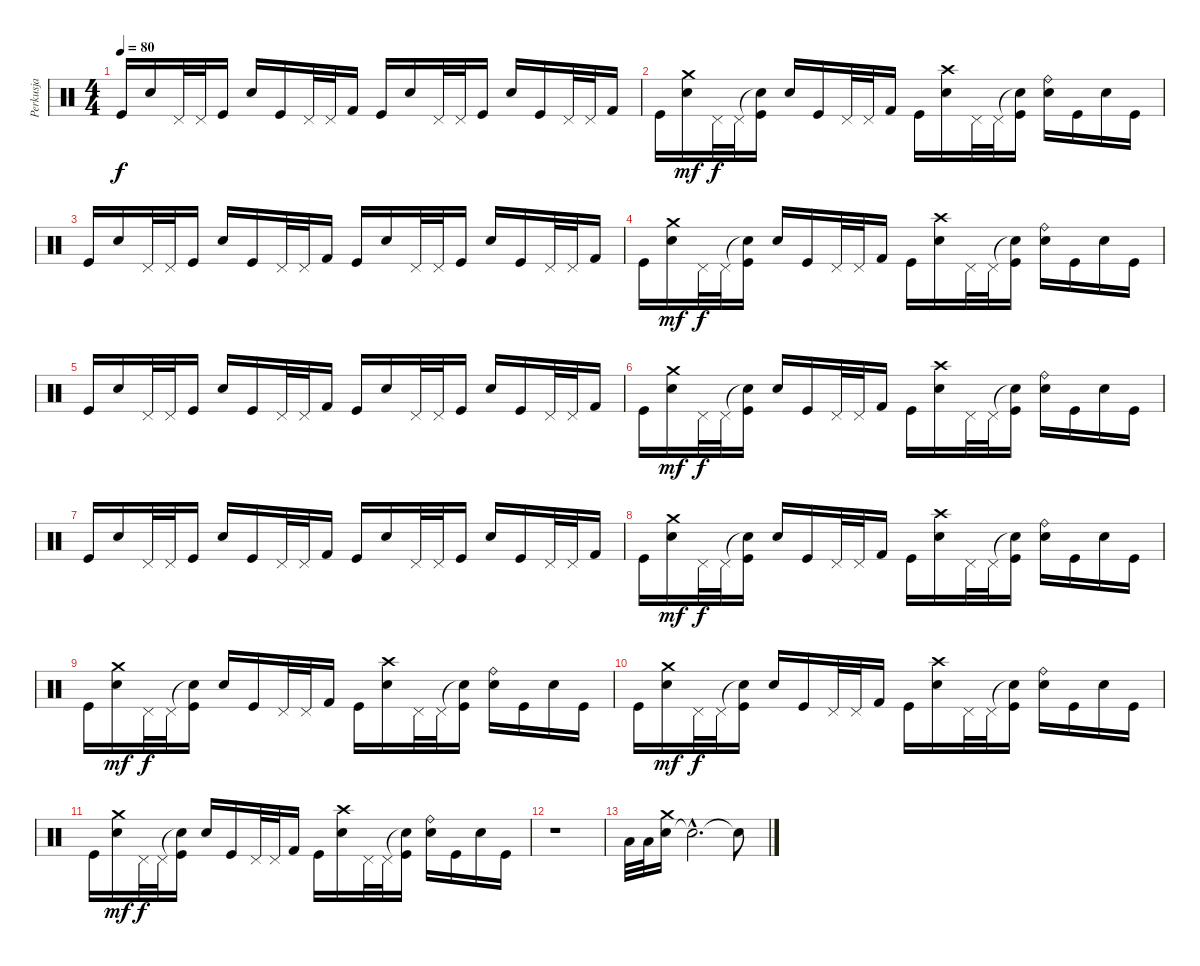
\track ("Perkusja" "Perkusja") {instrument percussion}
\staff {score}
\articulation defaults
\ts (4 4)
\tempo 80
\clef neutral
\ks c "Kick (hit)".16{dy f} "Electric Snare (hit)".16 "Pedal Hi-Hat (hit)".32 "Pedal Hi-Hat (hit)".32 "Kick (hit)".16 "Electric Snare (hit)".16 "Kick (hit)".16 "Pedal Hi-Hat (hit)".32 "Pedal Hi-Hat (hit)".32 "Kick (hit) 2".16 "Kick (hit)".16 "Electric Snare (hit)".16 "Pedal Hi-Hat (hit)".32 "Pedal Hi-Hat (hit)".32 "Kick (hit)".16 "Electric Snare (hit)".16 "Kick (hit)".16 "Pedal Hi-Hat (hit)".32 "Pedal Hi-Hat (hit)".32 "Kick (hit) 2".16
|
"Kick (hit)".16 ("Electric Snare (hit)" "Crash medium (hit)").16{dy mf} "Pedal Hi-Hat (hit)".32{dy f} "Pedal Hi-Hat (hit)".32 ("Snare (hit)"{t} "Kick (hit)").16 "Electric Snare (hit)".16 "Kick (hit)".16 "Pedal Hi-Hat (hit)".32 "Pedal Hi-Hat (hit)".32 "Kick (hit) 2".16 "Kick (hit)".16 ("Electric Snare (hit)" "Crash high (hit)").16 "Pedal Hi-Hat (hit)".32 "Pedal Hi-Hat (hit)".32 ("Snare (hit)"{t} "Kick (hit)").16 ("Electric Snare (hit)" "Ride (bell)").16 "Kick (hit)".16 "Electric Snare (hit)".16 "Kick (hit)".16 |
"Kick (hit)".16 "Electric Snare (hit)".16 "Pedal Hi-Hat (hit)".32 "Pedal Hi-Hat (hit)".32 "Kick (hit)".16 "Electric Snare (hit)".16 "Kick (hit)".16 "Pedal Hi-Hat (hit)".32 "Pedal Hi-Hat (hit)".32 "Kick (hit) 2".16 "Kick (hit)".16 "Electric Snare (hit)".16 "Pedal Hi-Hat (hit)".32 "Pedal Hi-Hat (hit)".32 "Kick (hit)".16 "Electric Snare (hit)".16 "Kick (hit)".16 "Pedal Hi-Hat (hit)".32 "Pedal Hi-Hat (hit)".32 "Kick (hit) 2".16 |
"Kick (hit)".16 ("Electric Snare (hit)" "Crash medium (hit)").16{dy mf} "Pedal Hi-Hat (hit)".32{dy f} "Pedal Hi-Hat (hit)".32 ("Snare (hit)"{t} "Kick (hit)").16 "Electric Snare (hit)".16 "Kick (hit)".16 "Pedal Hi-Hat (hit)".32 "Pedal Hi-Hat (hit)".32 "Kick (hit) 2".16 "Kick (hit)".16 ("Electric Snare (hit)" "Crash high (hit)").16 "Pedal Hi-Hat (hit)".32 "Pedal Hi-Hat (hit)".32 ("Snare (hit)"{t} "Kick (hit)").16 ("Electric Snare (hit)" "Ride (bell)").16 "Kick (hit)".16 "Electric Snare (hit)".16 "Kick (hit)".16 |
"Kick (hit)".16 "Electric Snare (hit)".16 "Pedal Hi-Hat (hit)".32 "Pedal Hi-Hat (hit)".32 "Kick (hit)".16 "Electric Snare (hit)".16 "Kick (hit)".16 "Pedal Hi-Hat (hit)".32 "Pedal Hi-Hat (hit)".32 "Kick (hit) 2".16 "Kick (hit)".16 "Electric Snare (hit)".16 "Pedal Hi-Hat (hit)".32 "Pedal Hi-Hat (hit)".32 "Kick (hit)".16 "Electric Snare (hit)".16 "Kick (hit)".16 "Pedal Hi-Hat (hit)".32 "Pedal Hi-Hat (hit)".32 "Kick (hit) 2".16 |
"Kick (hit)".16 ("Electric Snare (hit)" "Crash medium (hit)").16{dy mf} "Pedal Hi-Hat (hit)".32{dy f} "Pedal Hi-Hat (hit)".32 ("Snare (hit)"{t} "Kick (hit)").16 "Electric Snare (hit)".16 "Kick (hit)".16 "Pedal Hi-Hat (hit)".32 "Pedal Hi-Hat (hit)".32 "Kick (hit) 2".16 "Kick (hit)".16 ("Electric Snare (hit)" "Crash high (hit)").16 "Pedal Hi-Hat (hit)".32 "Pedal Hi-Hat (hit)".32 ("Snare (hit)"{t} "Kick (hit)").16 ("Electric Snare (hit)" "Ride (bell)").16 "Kick (hit)".16 "Electric Snare (hit)".16 "Kick (hit)".16 |
"Kick (hit)".16 "Electric Snare (hit)".16 "Pedal Hi-Hat (hit)".32 "Pedal Hi-Hat (hit)".32 "Kick (hit)".16 "Electric Snare (hit)".16 "Kick (hit)".16 "Pedal Hi-Hat (hit)".32 "Pedal Hi-Hat (hit)".32 "Kick (hit) 2".16 "Kick (hit)".16 "Electric Snare (hit)".16 "Pedal Hi-Hat (hit)".32 "Pedal Hi-Hat (hit)".32 "Kick (hit)".16 "Electric Snare (hit)".16 "Kick (hit)".16 "Pedal Hi-Hat (hit)".32 "Pedal Hi-Hat (hit)".32 "Kick (hit) 2".16 |
"Kick (hit)".16 ("Electric Snare (hit)" "Crash medium (hit)").16{dy mf} "Pedal Hi-Hat (hit)".32{dy f} "Pedal Hi-Hat (hit)".32 ("Snare (hit)"{t} "Kick (hit)").16 "Electric Snare (hit)".16 "Kick (hit)".16 "Pedal Hi-Hat (hit)".32 "Pedal Hi-Hat (hit)".32 "Kick (hit) 2".16 "Kick (hit)".16 ("Electric Snare (hit)" "Crash high (hit)").16 "Pedal Hi-Hat (hit)".32 "Pedal Hi-Hat (hit)".32 ("Snare (hit)"{t} "Kick (hit)").16 ("Electric Snare (hit)" "Ride (bell)").16 "Kick (hit)".16 "Electric Snare (hit)".16 "Kick (hit)".16 |
"Kick (hit)".16 ("Electric Snare (hit)" "Crash medium (hit)").16{dy mf} "Pedal Hi-Hat (hit)".32{dy f} "Pedal Hi-Hat (hit)".32 ("Snare (hit)"{t} "Kick (hit)").16 "Electric Snare (hit)".16 "Kick (hit)".16 "Pedal Hi-Hat (hit)".32 "Pedal Hi-Hat (hit)".32 "Kick (hit) 2".16 "Kick (hit)".16 ("Electric Snare (hit)" "Crash high (hit)").16 "Pedal Hi-Hat (hit)".32 "Pedal Hi-Hat (hit)".32 ("Snare (hit)"{t} "Kick (hit)").16 ("Electric Snare (hit)" "Ride (bell)").16 "Kick (hit)".16 "Electric Snare (hit)".16 "Kick (hit)".16 |
"Kick (hit)".16{volume 8} ("Electric Snare (hit)" "Crash medium (hit)").16{dy mf} "Pedal Hi-Hat (hit)".32{dy f} "Pedal Hi-Hat (hit)".32 ("Snare (hit)"{t} "Kick (hit)").16 "Electric Snare (hit)".16 "Kick (hit)".16 "Pedal Hi-Hat (hit)".32 "Pedal Hi-Hat (hit)".32 "Kick (hit) 2".16 "Kick (hit)".16 ("Electric Snare (hit)" "Crash high (hit)").16 "Pedal Hi-Hat (hit)".32 "Pedal Hi-Hat (hit)".32 ("Snare (hit)"{t} "Kick (hit)").16 ("Electric Snare (hit)" "Ride (bell)").16 "Kick (hit)".16 "Electric Snare (hit)".16 "Kick (hit)".16 |
"Kick (hit)".16{volume 5} ("Electric Snare (hit)" "Crash medium (hit)").16{dy mf} "Pedal Hi-Hat (hit)".32{dy f} "Pedal Hi-Hat (hit)".32 ("Snare (hit)"{t} "Kick (hit)").16 "Electric Snare (hit)".16 "Kick (hit)".16 "Pedal Hi-Hat (hit)".32 "Pedal Hi-Hat (hit)".32 "Kick (hit) 2".16 "Kick (hit)".16 ("Electric Snare (hit)" "Crash high (hit)").16 "Pedal Hi-Hat (hit)".32 "Pedal Hi-Hat (hit)".32 ("Snare (hit)"{t} "Kick (hit)").16 ("Electric Snare (hit)" "Ride (bell)").16 "Kick (hit)".16 "Electric Snare (hit)".16 "Kick (hit)".16 |
r.1 |
"Low Tom (hit)".32{volume 12} "Low Tom (hit)".32 ("Electric Snare (hit)" "Crash medium (hit)").16 "Snare (hit)"{hac t}.2{d} "Snare (hit)"{t}.8
